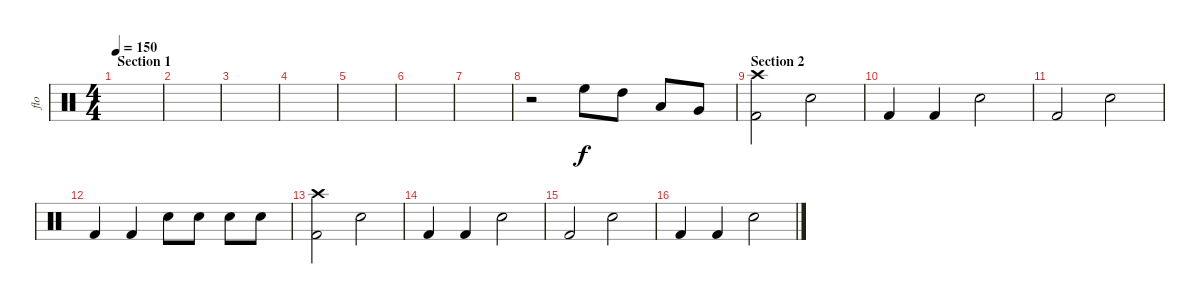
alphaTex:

\track ("flo" "flo") {instrument percussion}
\staff {score}
\articulation defaults
\ts (4 4)
\section ("" "Section 1")
\tempo 150
\clef neutral
\ks c
|
|
|
|
|
|
|
r.2 "High Floor Tom (hit)".8 "High Tom (hit)".8 "Low Tom (hit)".8 "Very Low Tom (hit)".8 |
\section ("" "Section 2")
("Kick (hit) 2" "Crash high (hit)").2 "Electric Snare (hit)".2 |
"Kick (hit) 2".4 "Kick (hit) 2".4 "Electric Snare (hit)".2 |
"Kick (hit) 2".2 "Electric Snare (hit)".2 |
"Kick (hit) 2".4 "Kick (hit) 2".4 "Electric Snare (hit)".8 "Electric Snare (hit)".8 "Electric Snare (hit)".8 "Electric Snare (hit)".8 |
("Kick (hit) 2" "Crash high (hit)").2 "Electric Snare (hit)".2 |
"Kick (hit) 2".4 "Kick (hit) 2".4 "Electric Snare (hit)".2 |
"Kick (hit) 2".2 "Electric Snare (hit)".2 |
"Kick (hit) 2".4 "Kick (hit) 2".4 "Electric Snare (hit)".2
